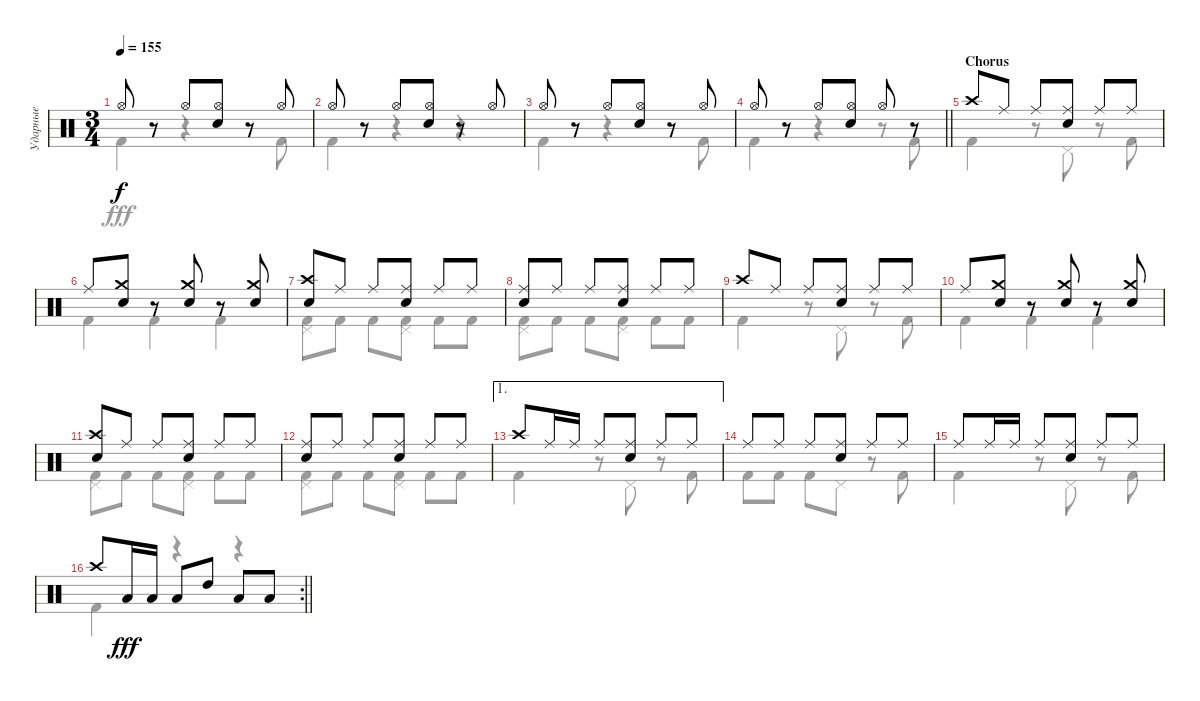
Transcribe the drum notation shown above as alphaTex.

\track ("Ударные" "Ударные") {instrument percussion}
\staff {score}
\articulation defaults
\voice
\ts (3 4)
\tempo 155
\clef neutral
\ks c "Hi-Hat (open)".8{dy f}
r.8 "Hi-Hat (open)".8 ("Hi-Hat (open)" "Electric Snare (hit)").8 r.8 "Hi-Hat (open)".8 |
"Hi-Hat (open)".8 r.8 "Hi-Hat (open)".8 ("Hi-Hat (open)" "Electric Snare (hit)").8 r.8 "Hi-Hat (open)".8 |
"Hi-Hat (open)".8 r.8 "Hi-Hat (open)".8 ("Hi-Hat (open)" "Electric Snare (hit)").8 r.8 "Hi-Hat (open)".8 |
\barLineRight lightlight "Hi-Hat (open)".8
r.8 "Hi-Hat (open)".8 ("Hi-Hat (open)" "Electric Snare (hit)").8 "Hi-Hat (open)".8 r.8 |
\section ("" "Chorus")
"Crash high (hit)".8 "Ride (middle)".8 "Ride (middle)".8 ("Ride (middle)" "Electric Snare (hit)").8 "Ride (middle)".8 "Ride (middle)".8 |
"Ride (middle)".8 ("Crash medium (hit)" "Electric Snare (hit)").8 r.8 ("Crash medium (hit)" "Electric Snare (hit)").8 r.8 ("Crash medium (hit)" "Electric Snare (hit)").8 |
("Crash high (hit)" "Electric Snare (hit)").8 "Ride (middle)".8 "Ride (middle)".8 ("Ride (middle)" "Electric Snare (hit)").8 "Ride (middle)".8 "Ride (middle)".8 |
("Ride (middle)" "Electric Snare (hit)").8 "Ride (middle)".8 "Ride (middle)".8 ("Ride (middle)" "Electric Snare (hit)").8 "Ride (middle)".8 "Ride (middle)".8 |
"Crash high (hit)".8 "Ride (middle)".8 "Ride (middle)".8 ("Ride (middle)" "Electric Snare (hit)").8 "Ride (middle)".8 "Ride (middle)".8 |
"Ride (middle)".8 ("Crash medium (hit)" "Electric Snare (hit)").8 r.8 ("Crash medium (hit)" "Electric Snare (hit)").8 r.8 ("Crash medium (hit)" "Electric Snare (hit)").8 |
("Crash high (hit)" "Electric Snare (hit)").8 "Ride (middle)".8 "Ride (middle)".8 ("Ride (middle)" "Electric Snare (hit)").8 "Ride (middle)".8 "Ride (middle)".8 |
("Ride (middle)" "Electric Snare (hit)").8 "Ride (middle)".8 "Ride (middle)".8 ("Ride (middle)" "Electric Snare (hit)").8 "Ride (middle)".8 "Ride (middle)".8 |
\ae 1 "Crash high (hit)".8 "Ride (middle)".16 "Ride (middle)".16 "Ride (middle)".8
("Ride (middle)" "Electric Snare (hit)").8 "Ride (middle)".8 "Ride (middle)".8 |
"Ride (middle)".8 "Ride (middle)".8 "Ride (middle)".8 ("Ride (middle)" "Electric Snare (hit)").8 "Ride (middle)".8 "Ride (middle)".8 |
"Ride (middle)".8 "Ride (middle)".16 "Ride (middle)".16 "Ride (middle)".8 ("Ride (middle)" "Electric Snare (hit)").8 "Ride (middle)".8 "Ride (middle)".8 |
\rc 2
\barLineRight lightlight "Crash high (hit)".8 "Low Floor Tom (hit)".16{dy fff} "Low Floor Tom (hit)".16 "Low Floor Tom (hit)".8 "High Tom (hit)".8 "Low Tom (hit)".8 "Low Floor Tom (hit)".8
\voice
\clef neutral
\ottava regular
\simile none
\ks c "Kick (hit) 2".4{dy fff}
r.4 r.8 "Kick (hit) 2".8 |
"Kick (hit) 2".4 r.4 r.4 |
"Kick (hit) 2".4 r.4 r.8 "Kick (hit) 2".8 |
\barLineRight lightlight "Kick (hit) 2".4
r.4 r.8 "Kick (hit) 2".8 |
"Kick (hit) 2".4 r.8 "Pedal Hi-Hat (hit)".8 r.8 "Kick (hit) 2".8 |
"Kick (hit) 2".4 "Kick (hit) 2".4 "Kick (hit) 2".4 |
("Pedal Hi-Hat (hit)" "Kick (hit) 2").8 "Kick (hit) 2".8 "Kick (hit) 2".8 ("Pedal Hi-Hat (hit)" "Kick (hit) 2").8 "Kick (hit) 2".8 "Kick (hit) 2".8 |
("Pedal Hi-Hat (hit)" "Kick (hit) 2").8 "Kick (hit) 2".8 "Kick (hit) 2".8 ("Pedal Hi-Hat (hit)" "Kick (hit) 2").8 "Kick (hit) 2".8 "Kick (hit) 2".8 |
"Kick (hit) 2".4 r.8 "Pedal Hi-Hat (hit)".8 r.8 "Kick (hit) 2".8 |
"Kick (hit) 2".4 "Kick (hit) 2".4 "Kick (hit) 2".4 |
("Pedal Hi-Hat (hit)" "Kick (hit) 2").8 "Kick (hit) 2".8 "Kick (hit) 2".8 ("Pedal Hi-Hat (hit)" "Kick (hit) 2").8 "Kick (hit) 2".8 "Kick (hit) 2".8 |
("Pedal Hi-Hat (hit)" "Kick (hit) 2").8 "Kick (hit) 2".8 "Kick (hit) 2".8 ("Pedal Hi-Hat (hit)" "Kick (hit) 2").8 "Kick (hit) 2".8 "Kick (hit) 2".8 |
"Kick (hit) 2".4 r.8 "Pedal Hi-Hat (hit)".8 r.8 "Kick (hit) 2".8 |
"Kick (hit) 2".8 "Kick (hit) 2".8 "Kick (hit) 2".8 "Pedal Hi-Hat (hit)".8 r.8 "Kick (hit) 2".8 |
"Kick (hit) 2".4 r.8 "Pedal Hi-Hat (hit)".8 r.8 "Kick (hit) 2".8 |
\barLineRight lightlight "Kick (hit) 2".4
r.4 r.4
